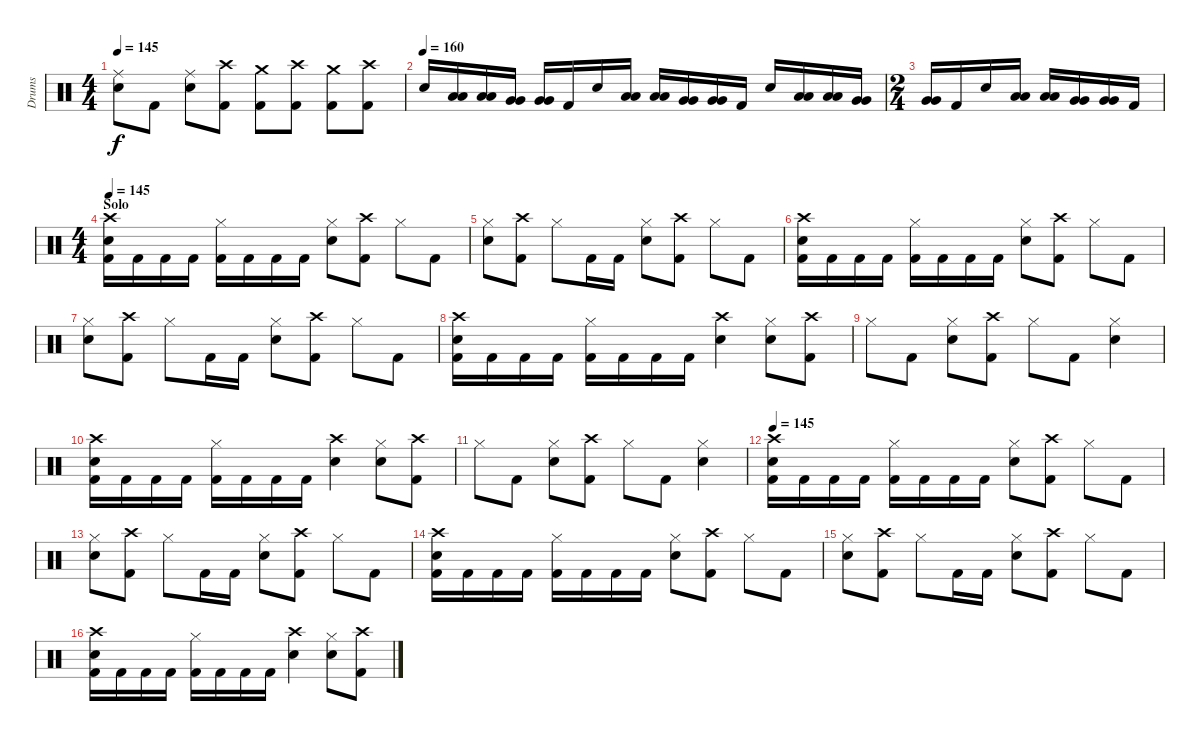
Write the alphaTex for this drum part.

\track ("Drums" "Drums") {instrument percussion}
\staff {score}
\articulation defaults
\ts (4 4)
\tempo 145
\clef neutral
\ks c
("Ride (middle)" "Snare (hit) 2").8{dy f} "Kick (hit) 2".8 ("Ride (middle)" "Snare (hit) 2").8 ("Crash high (hit)" "Kick (hit) 2").8 ("Crash medium (hit)" "Kick (hit) 2").8 ("Crash high (hit)" "Kick (hit) 2").8 ("Crash medium (hit)" "Kick (hit) 2").8 ("Crash high (hit)" "Kick (hit) 2").8 |
\tempo (160)
"Snare (hit) 2".16 ("Low Tom (hit)" "Low Tom (hit)").16 ("Low Tom (hit)" "Low Tom (hit)").16 ("Very Low Tom (hit)" "Very Low Tom (hit)").16 ("Very Low Tom (hit)" "Very Low Tom (hit)").16 "Kick (hit) 2".16 "Snare (hit) 2".16 ("Low Tom (hit)" "Low Tom (hit)").16 ("Low Tom (hit)" "Low Tom (hit)").16 ("Very Low Tom (hit)" "Very Low Tom (hit)").16 ("Very Low Tom (hit)" "Very Low Tom (hit)").16 "Kick (hit) 2".16 "Snare (hit) 2".16 ("Low Tom (hit)" "Low Tom (hit)").16 ("Low Tom (hit)" "Low Tom (hit)").16 ("Very Low Tom (hit)" "Very Low Tom (hit)").16 |
\ts (2 4)
("Very Low Tom (hit)" "Very Low Tom (hit)").16 "Kick (hit) 2".16 "Snare (hit) 2".16 ("Low Tom (hit)" "Low Tom (hit)").16 ("Low Tom (hit)" "Low Tom (hit)").16 ("Very Low Tom (hit)" "Very Low Tom (hit)").16 ("Very Low Tom (hit)" "Very Low Tom (hit)").16 "Kick (hit) 2".16 |
\ts (4 4)
\section ("" "Solo")
\tempo 145
("Crash high (hit)" "Snare (hit) 2" "Kick (hit) 2").16 "Kick (hit) 2".16 "Kick (hit) 2".16 "Kick (hit) 2".16 ("Hi-Hat (closed)" "Kick (hit) 2").16 "Kick (hit) 2".16 "Kick (hit) 2".16 "Kick (hit) 2".16 ("Hi-Hat (closed)" "Snare (hit) 2").8 ("Crash high (hit)" "Kick (hit) 2").8 "Hi-Hat (closed)".8 "Kick (hit) 2".8 |
("Hi-Hat (closed)" "Snare (hit) 2").8 ("Crash high (hit)" "Kick (hit) 2").8 "Hi-Hat (closed)".8 "Kick (hit) 2".16 "Kick (hit) 2".16 ("Hi-Hat (closed)" "Snare (hit) 2").8 ("Crash high (hit)" "Kick (hit) 2").8 "Hi-Hat (closed)".8 "Kick (hit) 2".8 |
("Crash high (hit)" "Snare (hit) 2" "Kick (hit) 2").16 "Kick (hit) 2".16 "Kick (hit) 2".16 "Kick (hit) 2".16 ("Hi-Hat (closed)" "Kick (hit) 2").16 "Kick (hit) 2".16 "Kick (hit) 2".16 "Kick (hit) 2".16 ("Hi-Hat (closed)" "Snare (hit) 2").8 ("Crash high (hit)" "Kick (hit) 2").8 "Hi-Hat (closed)".8 "Kick (hit) 2".8 |
("Hi-Hat (closed)" "Snare (hit) 2").8 ("Crash high (hit)" "Kick (hit) 2").8 "Hi-Hat (closed)".8 "Kick (hit) 2".16 "Kick (hit) 2".16 ("Hi-Hat (closed)" "Snare (hit) 2").8 ("Crash high (hit)" "Kick (hit) 2").8 "Hi-Hat (closed)".8 "Kick (hit) 2".8 |
("Crash high (hit)" "Snare (hit) 2" "Kick (hit) 2").16 "Kick (hit) 2".16 "Kick (hit) 2".16 "Kick (hit) 2".16 ("Hi-Hat (closed)" "Kick (hit) 2").16 "Kick (hit) 2".16 "Kick (hit) 2".16 "Kick (hit) 2".16 ("Crash high (hit)" "Snare (hit) 2").4 ("Hi-Hat (closed)" "Snare (hit) 2").8 ("Crash high (hit)" "Kick (hit) 2").8 |
"Hi-Hat (closed)".8 "Kick (hit) 2".8 ("Hi-Hat (closed)" "Snare (hit) 2").8 ("Crash high (hit)" "Kick (hit) 2").8 "Hi-Hat (closed)".8 "Kick (hit) 2".8 ("Hi-Hat (closed)" "Snare (hit) 2").4 |
("Crash high (hit)" "Snare (hit) 2" "Kick (hit) 2").16 "Kick (hit) 2".16 "Kick (hit) 2".16 "Kick (hit) 2".16 ("Hi-Hat (closed)" "Kick (hit) 2").16 "Kick (hit) 2".16 "Kick (hit) 2".16 "Kick (hit) 2".16 ("Crash high (hit)" "Snare (hit) 2").4 ("Hi-Hat (closed)" "Snare (hit) 2").8 ("Crash high (hit)" "Kick (hit) 2").8 |
"Hi-Hat (closed)".8 "Kick (hit) 2".8 ("Hi-Hat (closed)" "Snare (hit) 2").8 ("Crash high (hit)" "Kick (hit) 2").8 "Hi-Hat (closed)".8 "Kick (hit) 2".8 ("Hi-Hat (closed)" "Snare (hit) 2").4 |
\tempo 145
("Crash high (hit)" "Snare (hit) 2" "Kick (hit) 2").16 "Kick (hit) 2".16 "Kick (hit) 2".16 "Kick (hit) 2".16 ("Hi-Hat (closed)" "Kick (hit) 2").16 "Kick (hit) 2".16 "Kick (hit) 2".16 "Kick (hit) 2".16 ("Hi-Hat (closed)" "Snare (hit) 2").8 ("Crash high (hit)" "Kick (hit) 2").8 "Hi-Hat (closed)".8 "Kick (hit) 2".8 |
("Hi-Hat (closed)" "Snare (hit) 2").8 ("Crash high (hit)" "Kick (hit) 2").8 "Hi-Hat (closed)".8 "Kick (hit) 2".16 "Kick (hit) 2".16 ("Hi-Hat (closed)" "Snare (hit) 2").8 ("Crash high (hit)" "Kick (hit) 2").8 "Hi-Hat (closed)".8 "Kick (hit) 2".8 |
("Crash high (hit)" "Snare (hit) 2" "Kick (hit) 2").16 "Kick (hit) 2".16 "Kick (hit) 2".16 "Kick (hit) 2".16 ("Hi-Hat (closed)" "Kick (hit) 2").16 "Kick (hit) 2".16 "Kick (hit) 2".16 "Kick (hit) 2".16 ("Hi-Hat (closed)" "Snare (hit) 2").8 ("Crash high (hit)" "Kick (hit) 2").8 "Hi-Hat (closed)".8 "Kick (hit) 2".8 |
("Hi-Hat (closed)" "Snare (hit) 2").8 ("Crash high (hit)" "Kick (hit) 2").8 "Hi-Hat (closed)".8 "Kick (hit) 2".16 "Kick (hit) 2".16 ("Hi-Hat (closed)" "Snare (hit) 2").8 ("Crash high (hit)" "Kick (hit) 2").8 "Hi-Hat (closed)".8 "Kick (hit) 2".8 |
("Crash high (hit)" "Snare (hit) 2" "Kick (hit) 2").16 "Kick (hit) 2".16 "Kick (hit) 2".16 "Kick (hit) 2".16 ("Hi-Hat (closed)" "Kick (hit) 2").16 "Kick (hit) 2".16 "Kick (hit) 2".16 "Kick (hit) 2".16 ("Crash high (hit)" "Snare (hit) 2").4 ("Hi-Hat (closed)" "Snare (hit) 2").8 ("Crash high (hit)" "Kick (hit) 2").8
